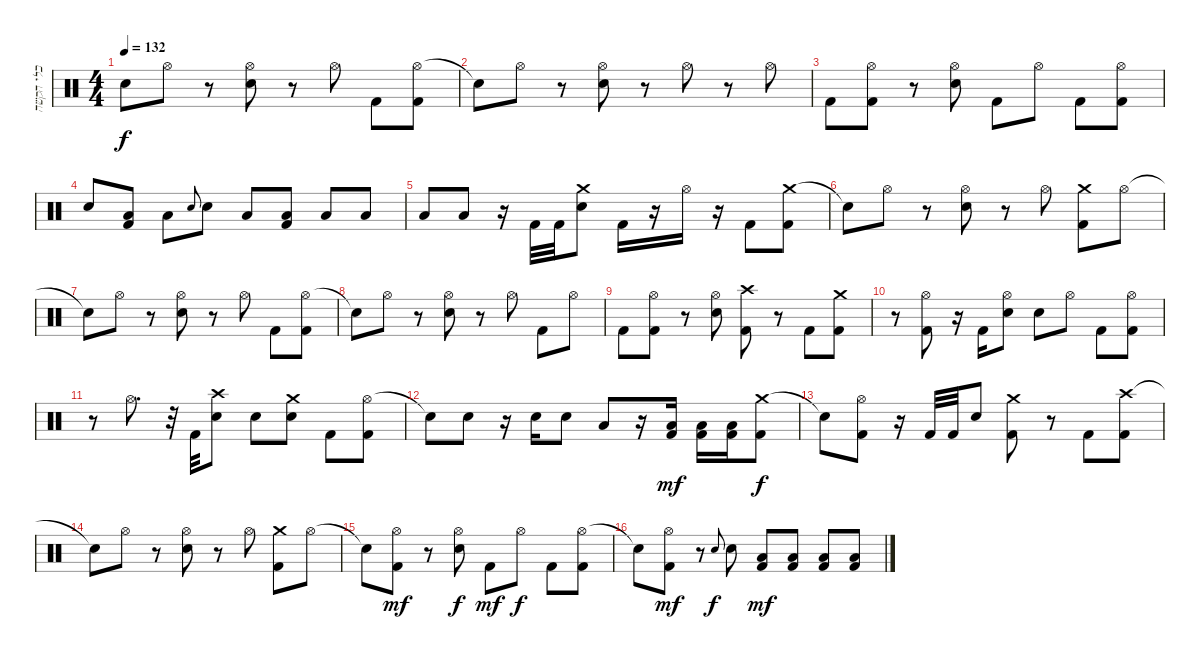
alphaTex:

\track ("כלי הקשה" "כלי הקשה") {instrument percussion}
\staff {score}
\articulation defaults
\ts (4 4)
\tempo 132
\clef neutral
\ks c "Snare (hit)"{t}.8{dy f} "Hi-Hat (open)".8
r.8 ("Hi-Hat (open)" "Electric Snare (hit)").8 r.8 "Hi-Hat (open)".8 "Kick (hit) 2".8 ("Hi-Hat (open)" "Kick (hit) 2").8 |
"Snare (hit)"{t}.8 "Hi-Hat (open)".8 r.8 ("Hi-Hat (open)" "Electric Snare (hit)").8 r.8 "Hi-Hat (open)".8 r.8 "Hi-Hat (open)".8 |
"Kick (hit) 2".8 ("Hi-Hat (open)" "Kick (hit) 2").8 r.8 ("Hi-Hat (open)" "Electric Snare (hit)").8 "Kick (hit) 2".8 "Hi-Hat (open)".8 "Kick (hit) 2".8 ("Hi-Hat (open)" "Kick (hit) 2").8 |
"Electric Snare (hit)".8 ("Low Tom (hit)" "Kick (hit) 2").8 "Low Tom (hit)".8 "Electric Snare (hit)".8{gr onbeat} "Electric Snare (hit)".8 "Low Tom (hit)".8 ("Low Tom (hit)" "Kick (hit) 2").8 "Low Floor Tom (hit)".8 "Low Floor Tom (hit)".8 |
"Low Floor Tom (hit)".8 "Low Floor Tom (hit)".8 r.16 "Kick (hit) 2".32 "Kick (hit) 2".32 ("Crash medium (hit)" "Electric Snare (hit)").8 "Kick (hit) 2".16 r.16 "Hi-Hat (open)".16 r.16 "Kick (hit) 2".8 ("Crash medium (hit)" "Kick (hit) 2").8 |
"Snare (hit)"{t}.8 "Hi-Hat (open)".8 r.8 ("Hi-Hat (open)" "Electric Snare (hit)").8 r.8 "Hi-Hat (open)".8 ("Crash medium (hit)" "Kick (hit) 2").8 "Hi-Hat (open)".8 |
"Snare (hit)"{t}.8 "Hi-Hat (open)".8 r.8 ("Hi-Hat (open)" "Electric Snare (hit)").8 r.8 "Hi-Hat (open)".8 "Kick (hit) 2".8 ("Hi-Hat (open)" "Kick (hit) 2").8 |
"Snare (hit)"{t}.8 "Hi-Hat (open)".8 r.8 ("Hi-Hat (open)" "Electric Snare (hit)").8 r.8 "Hi-Hat (open)".8 "Kick (hit) 2".8 "Hi-Hat (open)".8 |
"Kick (hit) 2".8 ("Hi-Hat (open)" "Kick (hit) 2").8 r.8 ("Hi-Hat (open)" "Electric Snare (hit)").8 ("Crash high (hit)" "Kick (hit) 2").8 r.8 "Kick (hit) 2".8 ("Crash medium (hit)" "Kick (hit) 2").8 |
r.8 ("Hi-Hat (open)" "Kick (hit) 2").8 r.16 "Kick (hit) 2".16 ("Hi-Hat (open)" "Electric Snare (hit)").8 "Electric Snare (hit)".8 "Hi-Hat (open)".8 "Kick (hit) 2".8 ("Hi-Hat (open)" "Kick (hit) 2").8 |
r.8 "Hi-Hat (open)".8{d} r.32 "Kick (hit) 2".32 ("Crash high (hit)" "Electric Snare (hit)").8 "Electric Snare (hit)".8 ("Crash medium (hit)" "Electric Snare (hit)").8 "Kick (hit) 2".8 ("Hi-Hat (open)" "Kick (hit) 2").8 |
"Snare (hit)"{t}.8{volume 12} "Electric Snare (hit)".8 r.16 "Electric Snare (hit)".16 "Electric Snare (hit)".8 "Low Tom (hit)".8 r.16 ("Low Floor Tom (hit)" "Kick (hit) 2").16{dy mf} ("Low Floor Tom (hit)" "Kick (hit) 2").16 ("Low Floor Tom (hit)" "Kick (hit) 2").16 ("Crash medium (hit)" "Kick (hit) 2").8{dy f} |
"Snare (hit)"{t}.8 ("Hi-Hat (open)" "Kick (hit) 2").8 r.16 "Kick (hit) 2".32 "Kick (hit) 2".32 "Electric Snare (hit)".8 ("Crash medium (hit)" "Kick (hit) 2").8 r.8 "Kick (hit) 2".8 ("Crash high (hit)" "Kick (hit) 2").8 |
"Snare (hit)"{t}.8{volume 12} "Hi-Hat (open)".8 r.8 ("Hi-Hat (open)" "Electric Snare (hit)").8 r.8 "Hi-Hat (open)".8 ("Crash medium (hit)" "Kick (hit) 2").8 "Hi-Hat (open)".8 |
"Snare (hit)"{t}.8{volume 10} ("Hi-Hat (open)" "Kick (hit) 2").8{dy mf} r.8 ("Hi-Hat (open)" "Electric Snare (hit)").8{dy f} "Kick (hit) 2".8{dy mf} "Hi-Hat (open)".8{dy f} "Kick (hit) 2".8 ("Hi-Hat (open)" "Kick (hit) 2").8 |
"Snare (hit)"{t}.8{volume 6} ("Hi-Hat (open)" "Kick (hit) 2").8{dy mf} r.8 "Electric Snare (hit)".8{gr onbeat dy f} "Electric Snare (hit)".8 ("Low Tom (hit)" "Kick (hit) 2").8{dy mf} ("Low Tom (hit)" "Kick (hit) 2").8 ("Low Floor Tom (hit)" "Kick (hit) 2").8 ("Low Floor Tom (hit)" "Kick (hit) 2").8
